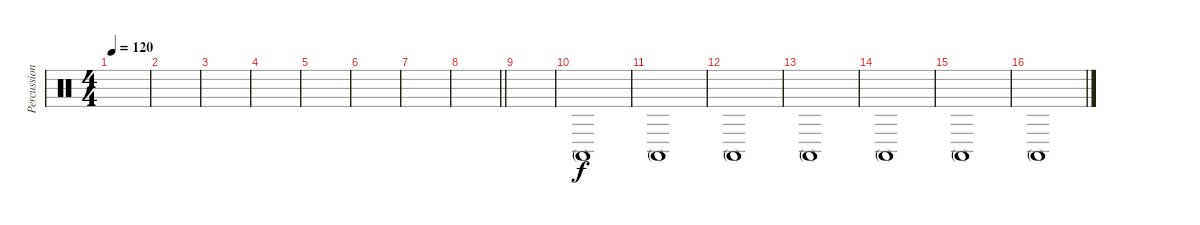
\track ("Percussion" "Percussion") {instrument percussion}
\staff {score}
\articulation defaults
\ts (4 4)
\tempo 120
\clef neutral
\ks c
|
|
|
|
|
|
|
\barLineRight lightlight
|
|
"Conga high (mute)".1 |
"Conga high (mute)".1 |
"Conga high (mute)".1 |
"Conga high (mute)".1 |
"Conga high (mute)".1 |
"Conga high (mute)".1 |
"Conga high (mute)".1
